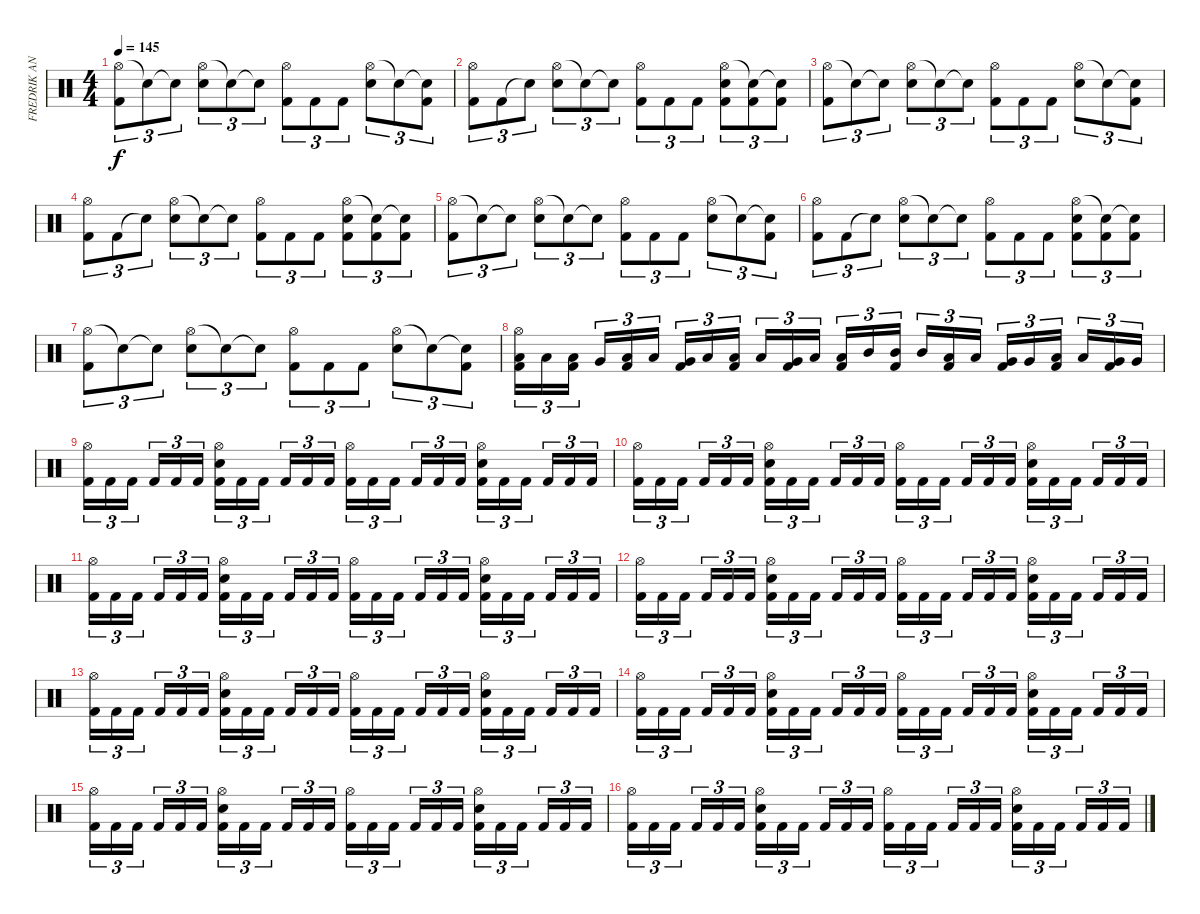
\track ("FREDRIK ANDERSSON" "FREDRIK AN") {instrument percussion}
\staff {score}
\articulation defaults
\ts (4 4)
\tempo 145
\clef neutral
\ks c
("Hi-Hat (open)" "Kick (hit) 2").8{tu (3 2) dy f} "Snare (hit)"{t}.8{tu (3 2)} "Snare (hit)"{t}.8{tu (3 2)} ("Hi-Hat (open)" "Snare (hit) 2").8{tu (3 2)} "Snare (hit)"{t}.8{tu (3 2)} "Snare (hit)"{t}.8{tu (3 2)} ("Hi-Hat (open)" "Kick (hit) 2").8{tu (3 2)} "Kick (hit) 2".8{tu (3 2)} "Kick (hit) 2".8{tu (3 2)} ("Hi-Hat (open)" "Snare (hit) 2").8{tu (3 2)} "Snare (hit)"{t}.8{tu (3 2)} ("Snare (hit)"{t} "Kick (hit) 2").8{tu (3 2)} |
("Hi-Hat (open)" "Kick (hit) 2").8{tu (3 2)} "Kick (hit) 2".8{tu (3 2)} "Snare (hit)"{t}.8{tu (3 2)} ("Hi-Hat (open)" "Snare (hit) 2").8{tu (3 2)} "Snare (hit)"{t}.8{tu (3 2)} "Snare (hit)"{t}.8{tu (3 2)} ("Hi-Hat (open)" "Kick (hit) 2").8{tu (3 2)} "Kick (hit) 2".8{tu (3 2)} "Kick (hit) 2".8{tu (3 2)} ("Hi-Hat (open)" "Snare (hit) 2" "Kick (hit) 2").8{tu (3 2)} ("Snare (hit)"{t} "Kick (hit) 2").8{tu (3 2)} ("Snare (hit)"{t} "Kick (hit) 2").8{tu (3 2)} |
("Hi-Hat (open)" "Kick (hit) 2").8{tu (3 2)} "Snare (hit)"{t}.8{tu (3 2)} "Snare (hit)"{t}.8{tu (3 2)} ("Hi-Hat (open)" "Snare (hit) 2").8{tu (3 2)} "Snare (hit)"{t}.8{tu (3 2)} "Snare (hit)"{t}.8{tu (3 2)} ("Hi-Hat (open)" "Kick (hit) 2").8{tu (3 2)} "Kick (hit) 2".8{tu (3 2)} "Kick (hit) 2".8{tu (3 2)} ("Hi-Hat (open)" "Snare (hit) 2").8{tu (3 2)} "Snare (hit)"{t}.8{tu (3 2)} ("Snare (hit)"{t} "Kick (hit) 2").8{tu (3 2)} |
("Hi-Hat (open)" "Kick (hit) 2").8{tu (3 2)} "Kick (hit) 2".8{tu (3 2)} "Snare (hit)"{t}.8{tu (3 2)} ("Hi-Hat (open)" "Snare (hit) 2").8{tu (3 2)} "Snare (hit)"{t}.8{tu (3 2)} "Snare (hit)"{t}.8{tu (3 2)} ("Hi-Hat (open)" "Kick (hit) 2").8{tu (3 2)} "Kick (hit) 2".8{tu (3 2)} "Kick (hit) 2".8{tu (3 2)} ("Hi-Hat (open)" "Snare (hit) 2" "Kick (hit) 2").8{tu (3 2)} ("Snare (hit)"{t} "Kick (hit) 2").8{tu (3 2)} ("Snare (hit)"{t} "Kick (hit) 2").8{tu (3 2)} |
("Hi-Hat (open)" "Kick (hit) 2").8{tu (3 2)} "Snare (hit)"{t}.8{tu (3 2)} "Snare (hit)"{t}.8{tu (3 2)} ("Hi-Hat (open)" "Snare (hit) 2").8{tu (3 2)} "Snare (hit)"{t}.8{tu (3 2)} "Snare (hit)"{t}.8{tu (3 2)} ("Hi-Hat (open)" "Kick (hit) 2").8{tu (3 2)} "Kick (hit) 2".8{tu (3 2)} "Kick (hit) 2".8{tu (3 2)} ("Hi-Hat (open)" "Snare (hit) 2").8{tu (3 2)} "Snare (hit)"{t}.8{tu (3 2)} ("Snare (hit)"{t} "Kick (hit) 2").8{tu (3 2)} |
("Hi-Hat (open)" "Kick (hit) 2").8{tu (3 2)} "Kick (hit) 2".8{tu (3 2)} "Snare (hit)"{t}.8{tu (3 2)} ("Hi-Hat (open)" "Snare (hit) 2").8{tu (3 2)} "Snare (hit)"{t}.8{tu (3 2)} "Snare (hit)"{t}.8{tu (3 2)} ("Hi-Hat (open)" "Kick (hit) 2").8{tu (3 2)} "Kick (hit) 2".8{tu (3 2)} "Kick (hit) 2".8{tu (3 2)} ("Hi-Hat (open)" "Snare (hit) 2" "Kick (hit) 2").8{tu (3 2)} ("Snare (hit)"{t} "Kick (hit) 2").8{tu (3 2)} ("Snare (hit)"{t} "Kick (hit) 2").8{tu (3 2)} |
("Hi-Hat (open)" "Kick (hit) 2").8{tu (3 2)} "Snare (hit)"{t}.8{tu (3 2)} "Snare (hit)"{t}.8{tu (3 2)} ("Hi-Hat (open)" "Snare (hit) 2").8{tu (3 2)} "Snare (hit)"{t}.8{tu (3 2)} "Snare (hit)"{t}.8{tu (3 2)} ("Hi-Hat (open)" "Kick (hit) 2").8{tu (3 2)} "Kick (hit) 2".8{tu (3 2)} "Kick (hit) 2".8{tu (3 2)} ("Hi-Hat (open)" "Snare (hit) 2").8{tu (3 2)} "Snare (hit)"{t}.8{tu (3 2)} ("Snare (hit)"{t} "Kick (hit) 2").8{tu (3 2)} |
("Kick (hit) 2" "Hi-Hat (open)" "Low Floor Tom (hit)").16{tu (3 2)} "Low Floor Tom (hit)".16{tu (3 2)} ("Kick (hit) 2" "Low Floor Tom (hit)").16{tu (3 2) beam splitsecondary} "Very Low Tom (hit)".16{tu (3 2)} ("Kick (hit) 2" "Low Floor Tom (hit)").16{tu (3 2)} "Low Floor Tom (hit)".16{tu (3 2)} ("Kick (hit) 2" "Very Low Tom (hit)").16{tu (3 2)} "Low Tom (hit)".16{tu (3 2)} ("Kick (hit) 2" "Low Tom (hit)").16{tu (3 2) beam splitsecondary} "Low Tom (hit)".16{tu (3 2)} ("Kick (hit) 2" "Very Low Tom (hit)").16{tu (3 2)} "Low Tom (hit)".16{tu (3 2)} ("Kick (hit) 2" "Low Tom (hit)").16{tu (3 2)} "Mid Tom (hit)".16{tu (3 2)} ("Kick (hit) 2" "Mid Tom (hit)").16{tu (3 2) beam splitsecondary} "Mid Tom (hit)".16{tu (3 2)} ("Kick (hit) 2" "Low Tom (hit)").16{tu (3 2)} "Low Tom (hit)".16{tu (3 2)} ("Kick (hit) 2" "Very Low Tom (hit)").16{tu (3 2)} "Very Low Tom (hit)".16{tu (3 2)} ("Kick (hit) 2" "Low Tom (hit)").16{tu (3 2) beam splitsecondary} "Low Tom (hit)".16{tu (3 2)} ("Kick (hit) 2" "Very Low Tom (hit)").16{tu (3 2)} "Very Low Tom (hit)".16{tu (3 2)} |
("Hi-Hat (open)" "Kick (hit) 2").16{tu (3 2)} "Kick (hit) 2".16{tu (3 2)} "Kick (hit) 2".16{tu (3 2) beam splitsecondary} "Kick (hit) 2".16{tu (3 2)} "Kick (hit) 2".16{tu (3 2)} "Kick (hit) 2".16{tu (3 2)} ("Hi-Hat (open)" "Snare (hit) 2" "Kick (hit) 2").16{tu (3 2)} "Kick (hit) 2".16{tu (3 2)} "Kick (hit) 2".16{tu (3 2) beam splitsecondary} "Kick (hit) 2".16{tu (3 2)} "Kick (hit) 2".16{tu (3 2)} "Kick (hit) 2".16{tu (3 2)} ("Hi-Hat (open)" "Kick (hit) 2").16{tu (3 2)} "Kick (hit) 2".16{tu (3 2)} "Kick (hit) 2".16{tu (3 2) beam splitsecondary} "Kick (hit) 2".16{tu (3 2)} "Kick (hit) 2".16{tu (3 2)} "Kick (hit) 2".16{tu (3 2)} ("Hi-Hat (open)" "Snare (hit) 2" "Kick (hit) 2").16{tu (3 2)} "Kick (hit) 2".16{tu (3 2)} "Kick (hit) 2".16{tu (3 2) beam splitsecondary} "Kick (hit) 2".16{tu (3 2)} "Kick (hit) 2".16{tu (3 2)} "Kick (hit) 2".16{tu (3 2)} |
("Hi-Hat (open)" "Kick (hit) 2").16{tu (3 2)} "Kick (hit) 2".16{tu (3 2)} "Kick (hit) 2".16{tu (3 2) beam splitsecondary} "Kick (hit) 2".16{tu (3 2)} "Kick (hit) 2".16{tu (3 2)} "Kick (hit) 2".16{tu (3 2)} ("Hi-Hat (open)" "Snare (hit) 2" "Kick (hit) 2").16{tu (3 2)} "Kick (hit) 2".16{tu (3 2)} "Kick (hit) 2".16{tu (3 2) beam splitsecondary} "Kick (hit) 2".16{tu (3 2)} "Kick (hit) 2".16{tu (3 2)} "Kick (hit) 2".16{tu (3 2)} ("Hi-Hat (open)" "Kick (hit) 2").16{tu (3 2)} "Kick (hit) 2".16{tu (3 2)} "Kick (hit) 2".16{tu (3 2) beam splitsecondary} "Kick (hit) 2".16{tu (3 2)} "Kick (hit) 2".16{tu (3 2)} "Kick (hit) 2".16{tu (3 2)} ("Hi-Hat (open)" "Snare (hit) 2" "Kick (hit) 2").16{tu (3 2)} "Kick (hit) 2".16{tu (3 2)} "Kick (hit) 2".16{tu (3 2) beam splitsecondary} "Kick (hit) 2".16{tu (3 2)} "Kick (hit) 2".16{tu (3 2)} "Kick (hit) 2".16{tu (3 2)} |
("Hi-Hat (open)" "Kick (hit) 2").16{tu (3 2)} "Kick (hit) 2".16{tu (3 2)} "Kick (hit) 2".16{tu (3 2) beam splitsecondary} "Kick (hit) 2".16{tu (3 2)} "Kick (hit) 2".16{tu (3 2)} "Kick (hit) 2".16{tu (3 2)} ("Hi-Hat (open)" "Snare (hit) 2" "Kick (hit) 2").16{tu (3 2)} "Kick (hit) 2".16{tu (3 2)} "Kick (hit) 2".16{tu (3 2) beam splitsecondary} "Kick (hit) 2".16{tu (3 2)} "Kick (hit) 2".16{tu (3 2)} "Kick (hit) 2".16{tu (3 2)} ("Hi-Hat (open)" "Kick (hit) 2").16{tu (3 2)} "Kick (hit) 2".16{tu (3 2)} "Kick (hit) 2".16{tu (3 2) beam splitsecondary} "Kick (hit) 2".16{tu (3 2)} "Kick (hit) 2".16{tu (3 2)} "Kick (hit) 2".16{tu (3 2)} ("Hi-Hat (open)" "Snare (hit) 2" "Kick (hit) 2").16{tu (3 2)} "Kick (hit) 2".16{tu (3 2)} "Kick (hit) 2".16{tu (3 2) beam splitsecondary} "Kick (hit) 2".16{tu (3 2)} "Kick (hit) 2".16{tu (3 2)} "Kick (hit) 2".16{tu (3 2)} |
("Hi-Hat (open)" "Kick (hit) 2").16{tu (3 2)} "Kick (hit) 2".16{tu (3 2)} "Kick (hit) 2".16{tu (3 2) beam splitsecondary} "Kick (hit) 2".16{tu (3 2)} "Kick (hit) 2".16{tu (3 2)} "Kick (hit) 2".16{tu (3 2)} ("Hi-Hat (open)" "Snare (hit) 2" "Kick (hit) 2").16{tu (3 2)} "Kick (hit) 2".16{tu (3 2)} "Kick (hit) 2".16{tu (3 2) beam splitsecondary} "Kick (hit) 2".16{tu (3 2)} "Kick (hit) 2".16{tu (3 2)} "Kick (hit) 2".16{tu (3 2)} ("Hi-Hat (open)" "Kick (hit) 2").16{tu (3 2)} "Kick (hit) 2".16{tu (3 2)} "Kick (hit) 2".16{tu (3 2) beam splitsecondary} "Kick (hit) 2".16{tu (3 2)} "Kick (hit) 2".16{tu (3 2)} "Kick (hit) 2".16{tu (3 2)} ("Hi-Hat (open)" "Snare (hit) 2" "Kick (hit) 2").16{tu (3 2)} "Kick (hit) 2".16{tu (3 2)} "Kick (hit) 2".16{tu (3 2) beam splitsecondary} "Kick (hit) 2".16{tu (3 2)} "Kick (hit) 2".16{tu (3 2)} "Kick (hit) 2".16{tu (3 2)} |
("Hi-Hat (open)" "Kick (hit) 2").16{tu (3 2)} "Kick (hit) 2".16{tu (3 2)} "Kick (hit) 2".16{tu (3 2) beam splitsecondary} "Kick (hit) 2".16{tu (3 2)} "Kick (hit) 2".16{tu (3 2)} "Kick (hit) 2".16{tu (3 2)} ("Hi-Hat (open)" "Snare (hit) 2" "Kick (hit) 2").16{tu (3 2)} "Kick (hit) 2".16{tu (3 2)} "Kick (hit) 2".16{tu (3 2) beam splitsecondary} "Kick (hit) 2".16{tu (3 2)} "Kick (hit) 2".16{tu (3 2)} "Kick (hit) 2".16{tu (3 2)} ("Hi-Hat (open)" "Kick (hit) 2").16{tu (3 2)} "Kick (hit) 2".16{tu (3 2)} "Kick (hit) 2".16{tu (3 2) beam splitsecondary} "Kick (hit) 2".16{tu (3 2)} "Kick (hit) 2".16{tu (3 2)} "Kick (hit) 2".16{tu (3 2)} ("Hi-Hat (open)" "Snare (hit) 2" "Kick (hit) 2").16{tu (3 2)} "Kick (hit) 2".16{tu (3 2)} "Kick (hit) 2".16{tu (3 2) beam splitsecondary} "Kick (hit) 2".16{tu (3 2)} "Kick (hit) 2".16{tu (3 2)} "Kick (hit) 2".16{tu (3 2)} |
("Hi-Hat (open)" "Kick (hit) 2").16{tu (3 2)} "Kick (hit) 2".16{tu (3 2)} "Kick (hit) 2".16{tu (3 2) beam splitsecondary} "Kick (hit) 2".16{tu (3 2)} "Kick (hit) 2".16{tu (3 2)} "Kick (hit) 2".16{tu (3 2)} ("Hi-Hat (open)" "Snare (hit) 2" "Kick (hit) 2").16{tu (3 2)} "Kick (hit) 2".16{tu (3 2)} "Kick (hit) 2".16{tu (3 2) beam splitsecondary} "Kick (hit) 2".16{tu (3 2)} "Kick (hit) 2".16{tu (3 2)} "Kick (hit) 2".16{tu (3 2)} ("Hi-Hat (open)" "Kick (hit) 2").16{tu (3 2)} "Kick (hit) 2".16{tu (3 2)} "Kick (hit) 2".16{tu (3 2) beam splitsecondary} "Kick (hit) 2".16{tu (3 2)} "Kick (hit) 2".16{tu (3 2)} "Kick (hit) 2".16{tu (3 2)} ("Hi-Hat (open)" "Snare (hit) 2" "Kick (hit) 2").16{tu (3 2)} "Kick (hit) 2".16{tu (3 2)} "Kick (hit) 2".16{tu (3 2) beam splitsecondary} "Kick (hit) 2".16{tu (3 2)} "Kick (hit) 2".16{tu (3 2)} "Kick (hit) 2".16{tu (3 2)} |
("Hi-Hat (open)" "Kick (hit) 2").16{tu (3 2)} "Kick (hit) 2".16{tu (3 2)} "Kick (hit) 2".16{tu (3 2) beam splitsecondary} "Kick (hit) 2".16{tu (3 2)} "Kick (hit) 2".16{tu (3 2)} "Kick (hit) 2".16{tu (3 2)} ("Hi-Hat (open)" "Snare (hit) 2" "Kick (hit) 2").16{tu (3 2)} "Kick (hit) 2".16{tu (3 2)} "Kick (hit) 2".16{tu (3 2) beam splitsecondary} "Kick (hit) 2".16{tu (3 2)} "Kick (hit) 2".16{tu (3 2)} "Kick (hit) 2".16{tu (3 2)} ("Hi-Hat (open)" "Kick (hit) 2").16{tu (3 2)} "Kick (hit) 2".16{tu (3 2)} "Kick (hit) 2".16{tu (3 2) beam splitsecondary} "Kick (hit) 2".16{tu (3 2)} "Kick (hit) 2".16{tu (3 2)} "Kick (hit) 2".16{tu (3 2)} ("Hi-Hat (open)" "Snare (hit) 2" "Kick (hit) 2").16{tu (3 2)} "Kick (hit) 2".16{tu (3 2)} "Kick (hit) 2".16{tu (3 2) beam splitsecondary} "Kick (hit) 2".16{tu (3 2)} "Kick (hit) 2".16{tu (3 2)} "Kick (hit) 2".16{tu (3 2)} |
("Hi-Hat (open)" "Kick (hit) 2").16{tu (3 2)} "Kick (hit) 2".16{tu (3 2)} "Kick (hit) 2".16{tu (3 2) beam splitsecondary} "Kick (hit) 2".16{tu (3 2)} "Kick (hit) 2".16{tu (3 2)} "Kick (hit) 2".16{tu (3 2)} ("Hi-Hat (open)" "Snare (hit) 2" "Kick (hit) 2").16{tu (3 2)} "Kick (hit) 2".16{tu (3 2)} "Kick (hit) 2".16{tu (3 2) beam splitsecondary} "Kick (hit) 2".16{tu (3 2)} "Kick (hit) 2".16{tu (3 2)} "Kick (hit) 2".16{tu (3 2)} ("Hi-Hat (open)" "Kick (hit) 2").16{tu (3 2)} "Kick (hit) 2".16{tu (3 2)} "Kick (hit) 2".16{tu (3 2) beam splitsecondary} "Kick (hit) 2".16{tu (3 2)} "Kick (hit) 2".16{tu (3 2)} "Kick (hit) 2".16{tu (3 2)} ("Hi-Hat (open)" "Snare (hit) 2" "Kick (hit) 2").16{tu (3 2)} "Kick (hit) 2".16{tu (3 2)} "Kick (hit) 2".16{tu (3 2) beam splitsecondary} "Kick (hit) 2".16{tu (3 2)} "Kick (hit) 2".16{tu (3 2)} "Kick (hit) 2".16{tu (3 2)}
